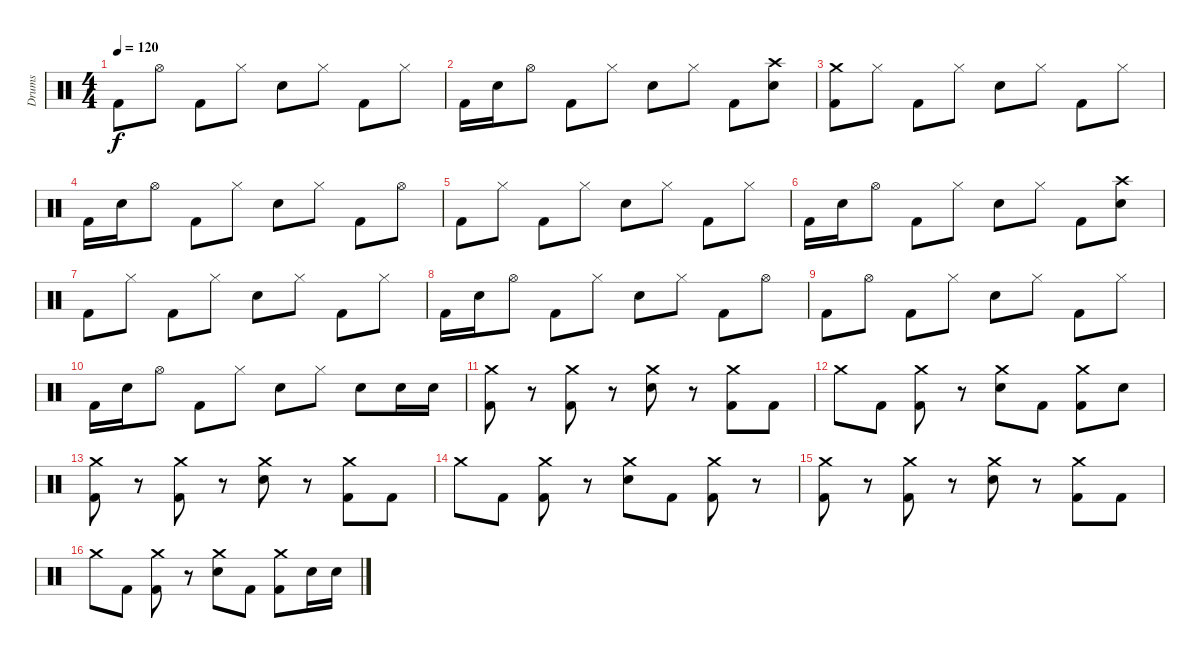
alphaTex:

\track ("Drums" "Drums") {instrument percussion}
\staff {score}
\articulation defaults
\ts (4 4)
\tempo 120
\clef neutral
\ks c "Kick (hit) 2".8{dy f} "Hi-Hat (open)".8 "Kick (hit) 2".8 "Hi-Hat (closed)".8 "Snare (hit) 2".8 "Hi-Hat (closed)".8 "Kick (hit) 2".8 "Hi-Hat (closed)".8
|
"Kick (hit) 2".16 "Snare (hit) 2".16 "Hi-Hat (open)".8 "Kick (hit) 2".8 "Hi-Hat (closed)".8 "Snare (hit) 2".8 "Hi-Hat (closed)".8 "Kick (hit) 2".8 ("Crash high (hit)" "Snare (hit) 2").8 |
("Crash medium (hit)" "Kick (hit) 2").8 "Hi-Hat (closed)".8 "Kick (hit) 2".8 "Hi-Hat (closed)".8 "Snare (hit) 2".8 "Hi-Hat (closed)".8 "Kick (hit) 2".8 "Hi-Hat (closed)".8 |
"Kick (hit) 2".16 "Snare (hit) 2".16 "Hi-Hat (open)".8 "Kick (hit) 2".8 "Hi-Hat (closed)".8 "Snare (hit) 2".8 "Hi-Hat (closed)".8 "Kick (hit) 2".8 "Hi-Hat (open)".8 |
"Kick (hit) 2".8 "Hi-Hat (closed)".8 "Kick (hit) 2".8 "Hi-Hat (closed)".8 "Snare (hit) 2".8 "Hi-Hat (closed)".8 "Kick (hit) 2".8 "Hi-Hat (closed)".8 |
"Kick (hit) 2".16 "Snare (hit) 2".16 "Hi-Hat (open)".8 "Kick (hit) 2".8 "Hi-Hat (closed)".8 "Snare (hit) 2".8 "Hi-Hat (closed)".8 "Kick (hit) 2".8 ("Crash high (hit)" "Snare (hit) 2").8 |
"Kick (hit) 2".8 "Hi-Hat (closed)".8 "Kick (hit) 2".8 "Hi-Hat (closed)".8 "Snare (hit) 2".8 "Hi-Hat (closed)".8 "Kick (hit) 2".8 "Hi-Hat (closed)".8 |
"Kick (hit) 2".16 "Snare (hit) 2".16 "Hi-Hat (open)".8 "Kick (hit) 2".8 "Hi-Hat (closed)".8 "Snare (hit) 2".8 "Hi-Hat (closed)".8 "Kick (hit) 2".8 "Hi-Hat (open)".8 |
"Kick (hit) 2".8 "Hi-Hat (open)".8 "Kick (hit) 2".8 "Hi-Hat (closed)".8 "Snare (hit) 2".8 "Hi-Hat (closed)".8 "Kick (hit) 2".8 "Hi-Hat (closed)".8 |
"Kick (hit) 2".16 "Snare (hit) 2".16 "Hi-Hat (open)".8 "Kick (hit) 2".8 "Hi-Hat (closed)".8 "Snare (hit) 2".8 "Hi-Hat (closed)".8 "Snare (hit) 2".8 "Snare (hit) 2".16 "Snare (hit) 2".16 |
("Crash medium (hit)" "Kick (hit) 2").8 r.8 ("Crash medium (hit)" "Kick (hit) 2").8 r.8 ("Crash medium (hit)" "Snare (hit) 2").8 r.8 ("Crash medium (hit)" "Kick (hit) 2").8 "Kick (hit) 2".8 |
"Crash medium (hit)".8 "Kick (hit) 2".8 ("Crash medium (hit)" "Kick (hit) 2").8 r.8 ("Crash medium (hit)" "Snare (hit) 2").8 "Kick (hit) 2".8 ("Crash medium (hit)" "Kick (hit) 2").8 "Snare (hit) 2".8 |
("Crash medium (hit)" "Kick (hit) 2").8 r.8 ("Crash medium (hit)" "Kick (hit) 2").8 r.8 ("Crash medium (hit)" "Snare (hit) 2").8 r.8 ("Crash medium (hit)" "Kick (hit) 2").8 "Kick (hit) 2".8 |
"Crash medium (hit)".8 "Kick (hit) 2".8 ("Crash medium (hit)" "Kick (hit) 2").8 r.8 ("Crash medium (hit)" "Snare (hit) 2").8 "Kick (hit) 2".8 ("Crash medium (hit)" "Kick (hit) 2").8 r.8 |
("Crash medium (hit)" "Kick (hit) 2").8 r.8 ("Crash medium (hit)" "Kick (hit) 2").8 r.8 ("Crash medium (hit)" "Snare (hit) 2").8 r.8 ("Crash medium (hit)" "Kick (hit) 2").8 "Kick (hit) 2".8 |
"Crash medium (hit)".8 "Kick (hit) 2".8 ("Crash medium (hit)" "Kick (hit) 2").8 r.8 ("Crash medium (hit)" "Snare (hit) 2").8 "Kick (hit) 2".8 ("Crash medium (hit)" "Kick (hit) 2").8 "Electric Snare (hit)".16 "Electric Snare (hit)".16
